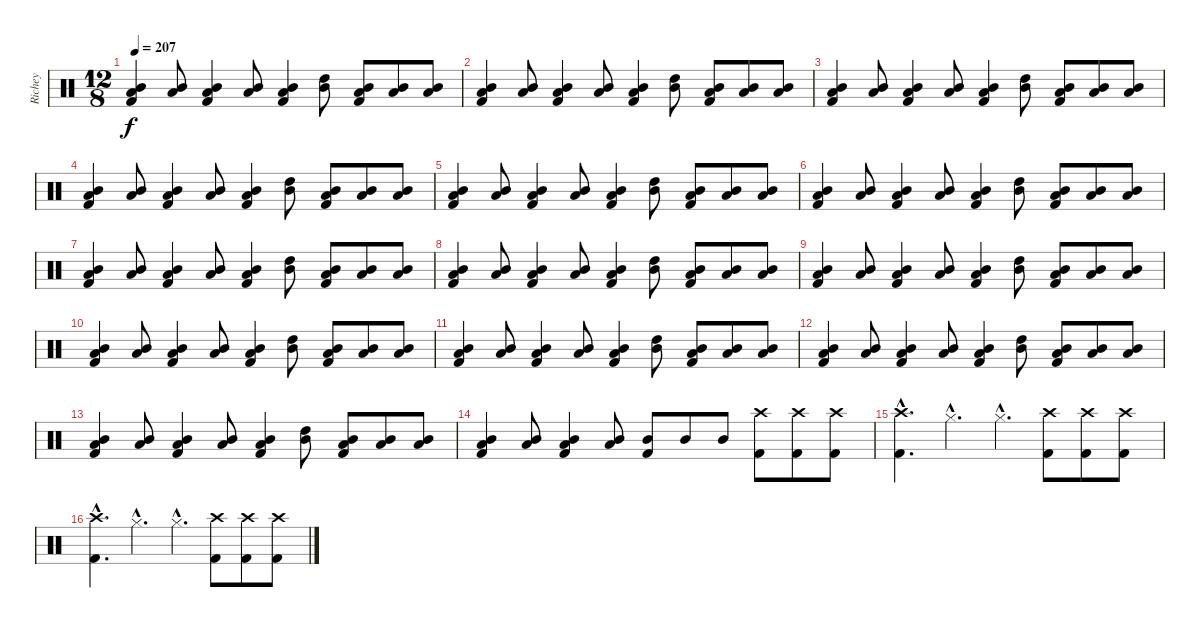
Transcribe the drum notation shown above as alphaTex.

\track ("Richey" "Richey") {instrument percussion}
\staff {score}
\articulation defaults
\ts (12 8)
\tempo 207
\clef neutral
\ks c
("Mid Tom (hit)" "Low Tom (hit)" "Kick (hit) 2").4{dy f} ("Mid Tom (hit)" "Low Tom (hit)").8 ("Mid Tom (hit)" "Low Tom (hit)" "Kick (hit) 2").4 ("Mid Tom (hit)" "Low Tom (hit)").8 ("Mid Tom (hit)" "Low Tom (hit)" "Kick (hit) 2").4 ("High Tom (hit)" "Mid Tom (hit)").8 ("Mid Tom (hit)" "Low Tom (hit)" "Kick (hit) 2").8 ("Mid Tom (hit)" "Low Tom (hit)").8 ("Mid Tom (hit)" "Low Tom (hit)").8 |
("Mid Tom (hit)" "Low Tom (hit)" "Kick (hit) 2").4 ("Mid Tom (hit)" "Low Tom (hit)").8 ("Mid Tom (hit)" "Low Tom (hit)" "Kick (hit) 2").4 ("Mid Tom (hit)" "Low Tom (hit)").8 ("Mid Tom (hit)" "Low Tom (hit)" "Kick (hit) 2").4 ("High Tom (hit)" "Mid Tom (hit)").8 ("Mid Tom (hit)" "Low Tom (hit)" "Kick (hit) 2").8 ("Mid Tom (hit)" "Low Tom (hit)").8 ("Mid Tom (hit)" "Low Tom (hit)").8 |
("Mid Tom (hit)" "Low Tom (hit)" "Kick (hit) 2").4 ("Mid Tom (hit)" "Low Tom (hit)").8 ("Mid Tom (hit)" "Low Tom (hit)" "Kick (hit) 2").4 ("Mid Tom (hit)" "Low Tom (hit)").8 ("Mid Tom (hit)" "Low Tom (hit)" "Kick (hit) 2").4 ("High Tom (hit)" "Mid Tom (hit)").8 ("Mid Tom (hit)" "Low Tom (hit)" "Kick (hit) 2").8 ("Mid Tom (hit)" "Low Tom (hit)").8 ("Mid Tom (hit)" "Low Tom (hit)").8 |
("Mid Tom (hit)" "Low Tom (hit)" "Kick (hit) 2").4 ("Mid Tom (hit)" "Low Tom (hit)").8 ("Mid Tom (hit)" "Low Tom (hit)" "Kick (hit) 2").4 ("Mid Tom (hit)" "Low Tom (hit)").8 ("Mid Tom (hit)" "Low Tom (hit)" "Kick (hit) 2").4 ("High Tom (hit)" "Mid Tom (hit)").8 ("Mid Tom (hit)" "Low Tom (hit)" "Kick (hit) 2").8 ("Mid Tom (hit)" "Low Tom (hit)").8 ("Mid Tom (hit)" "Low Tom (hit)").8 |
("Mid Tom (hit)" "Low Tom (hit)" "Kick (hit) 2").4 ("Mid Tom (hit)" "Low Tom (hit)").8 ("Mid Tom (hit)" "Low Tom (hit)" "Kick (hit) 2").4 ("Mid Tom (hit)" "Low Tom (hit)").8 ("Mid Tom (hit)" "Low Tom (hit)" "Kick (hit) 2").4 ("High Tom (hit)" "Mid Tom (hit)").8 ("Mid Tom (hit)" "Low Tom (hit)" "Kick (hit) 2").8 ("Mid Tom (hit)" "Low Tom (hit)").8 ("Mid Tom (hit)" "Low Tom (hit)").8 |
("Mid Tom (hit)" "Low Tom (hit)" "Kick (hit) 2").4 ("Mid Tom (hit)" "Low Tom (hit)").8 ("Mid Tom (hit)" "Low Tom (hit)" "Kick (hit) 2").4 ("Mid Tom (hit)" "Low Tom (hit)").8 ("Mid Tom (hit)" "Low Tom (hit)" "Kick (hit) 2").4 ("High Tom (hit)" "Mid Tom (hit)").8 ("Mid Tom (hit)" "Low Tom (hit)" "Kick (hit) 2").8 ("Mid Tom (hit)" "Low Tom (hit)").8 ("Mid Tom (hit)" "Low Tom (hit)").8 |
("Mid Tom (hit)" "Low Tom (hit)" "Kick (hit) 2").4 ("Mid Tom (hit)" "Low Tom (hit)").8 ("Mid Tom (hit)" "Low Tom (hit)" "Kick (hit) 2").4 ("Mid Tom (hit)" "Low Tom (hit)").8 ("Mid Tom (hit)" "Low Tom (hit)" "Kick (hit) 2").4 ("High Tom (hit)" "Mid Tom (hit)").8 ("Mid Tom (hit)" "Low Tom (hit)" "Kick (hit) 2").8 ("Mid Tom (hit)" "Low Tom (hit)").8 ("Mid Tom (hit)" "Low Tom (hit)").8 |
("Mid Tom (hit)" "Low Tom (hit)" "Kick (hit) 2").4 ("Mid Tom (hit)" "Low Tom (hit)").8 ("Mid Tom (hit)" "Low Tom (hit)" "Kick (hit) 2").4 ("Mid Tom (hit)" "Low Tom (hit)").8 ("Mid Tom (hit)" "Low Tom (hit)" "Kick (hit) 2").4 ("High Tom (hit)" "Mid Tom (hit)").8 ("Mid Tom (hit)" "Low Tom (hit)" "Kick (hit) 2").8 ("Mid Tom (hit)" "Low Tom (hit)").8 ("Mid Tom (hit)" "Low Tom (hit)").8 |
("Mid Tom (hit)" "Low Tom (hit)" "Kick (hit) 2").4 ("Mid Tom (hit)" "Low Tom (hit)").8 ("Mid Tom (hit)" "Low Tom (hit)" "Kick (hit) 2").4 ("Mid Tom (hit)" "Low Tom (hit)").8 ("Mid Tom (hit)" "Low Tom (hit)" "Kick (hit) 2").4 ("High Tom (hit)" "Mid Tom (hit)").8 ("Mid Tom (hit)" "Low Tom (hit)" "Kick (hit) 2").8 ("Mid Tom (hit)" "Low Tom (hit)").8 ("Mid Tom (hit)" "Low Tom (hit)").8 |
("Mid Tom (hit)" "Low Tom (hit)" "Kick (hit) 2").4 ("Mid Tom (hit)" "Low Tom (hit)").8 ("Mid Tom (hit)" "Low Tom (hit)" "Kick (hit) 2").4 ("Mid Tom (hit)" "Low Tom (hit)").8 ("Mid Tom (hit)" "Low Tom (hit)" "Kick (hit) 2").4 ("High Tom (hit)" "Mid Tom (hit)").8 ("Mid Tom (hit)" "Low Tom (hit)" "Kick (hit) 2").8 ("Mid Tom (hit)" "Low Tom (hit)").8 ("Mid Tom (hit)" "Low Tom (hit)").8 |
("Mid Tom (hit)" "Low Tom (hit)" "Kick (hit) 2").4 ("Mid Tom (hit)" "Low Tom (hit)").8 ("Mid Tom (hit)" "Low Tom (hit)" "Kick (hit) 2").4 ("Mid Tom (hit)" "Low Tom (hit)").8 ("Mid Tom (hit)" "Low Tom (hit)" "Kick (hit) 2").4 ("High Tom (hit)" "Mid Tom (hit)").8 ("Mid Tom (hit)" "Low Tom (hit)" "Kick (hit) 2").8 ("Mid Tom (hit)" "Low Tom (hit)").8 ("Mid Tom (hit)" "Low Tom (hit)").8 |
("Mid Tom (hit)" "Low Tom (hit)" "Kick (hit) 2").4 ("Mid Tom (hit)" "Low Tom (hit)").8 ("Mid Tom (hit)" "Low Tom (hit)" "Kick (hit) 2").4 ("Mid Tom (hit)" "Low Tom (hit)").8 ("Mid Tom (hit)" "Low Tom (hit)" "Kick (hit) 2").4 ("High Tom (hit)" "Mid Tom (hit)").8 ("Mid Tom (hit)" "Low Tom (hit)" "Kick (hit) 2").8 ("Mid Tom (hit)" "Low Tom (hit)").8 ("Mid Tom (hit)" "Low Tom (hit)").8 |
("Mid Tom (hit)" "Low Tom (hit)" "Kick (hit) 2").4 ("Mid Tom (hit)" "Low Tom (hit)").8 ("Mid Tom (hit)" "Low Tom (hit)" "Kick (hit) 2").4 ("Mid Tom (hit)" "Low Tom (hit)").8 ("Mid Tom (hit)" "Low Tom (hit)" "Kick (hit) 2").4 ("High Tom (hit)" "Mid Tom (hit)").8 ("Mid Tom (hit)" "Low Tom (hit)" "Kick (hit) 2").8 ("Mid Tom (hit)" "Low Tom (hit)").8 ("Mid Tom (hit)" "Low Tom (hit)").8 |
("Mid Tom (hit)" "Low Tom (hit)" "Kick (hit) 2").4 ("Mid Tom (hit)" "Low Tom (hit)").8 ("Mid Tom (hit)" "Low Tom (hit)" "Kick (hit) 2").4 ("Mid Tom (hit)" "Low Tom (hit)").8 ("Mid Tom (hit)" "Kick (hit) 2").8 "Mid Tom (hit)".8 "Mid Tom (hit)".8 ("Crash high (hit)" "Kick (hit) 2").8 ("Crash high (hit)" "Kick (hit) 2").8 ("Crash high (hit)" "Kick (hit) 2").8 |
("Crash high (hit)"{hac} "Kick (hit) 2"{hac}).4{d} "Hi-Hat (closed)"{hac}.4{d} "Hi-Hat (closed)"{hac}.4{d} ("Crash high (hit)" "Kick (hit) 2").8 ("Crash high (hit)" "Kick (hit) 2").8 ("Crash high (hit)" "Kick (hit) 2").8 |
("Crash high (hit)"{hac} "Kick (hit) 2"{hac}).4{d} "Hi-Hat (closed)"{hac}.4{d} "Hi-Hat (closed)"{hac}.4{d} ("Crash high (hit)" "Kick (hit) 2").8 ("Crash high (hit)" "Kick (hit) 2").8 ("Crash high (hit)" "Kick (hit) 2").8
